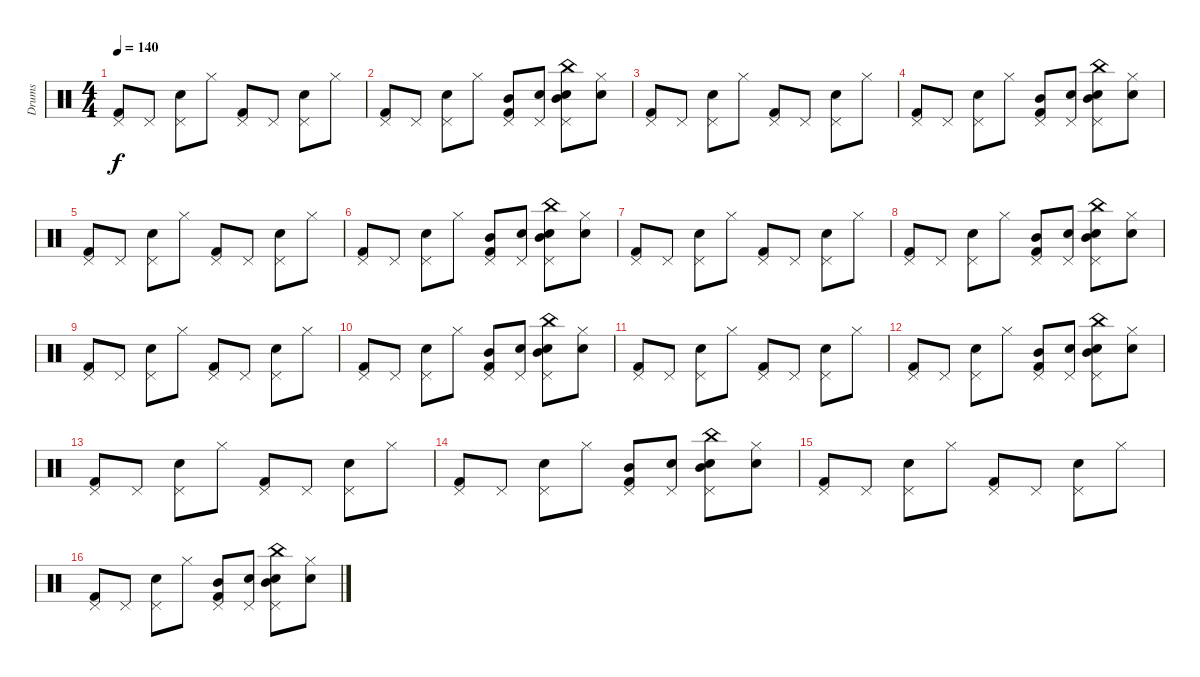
\track ("Drums" "Drums") {instrument percussion}
\staff {score}
\articulation defaults
\ts (4 4)
\tempo 140
\clef neutral
\ks c
("Kick (hit) 2" "Pedal Hi-Hat (hit)").8{dy f} "Pedal Hi-Hat (hit)".8 ("Snare (hit) 2" "Pedal Hi-Hat (hit)").8 "Hi-Hat (closed)".8 ("Kick (hit) 2" "Pedal Hi-Hat (hit)").8 "Pedal Hi-Hat (hit)".8 ("Snare (hit) 2" "Pedal Hi-Hat (hit)").8 "Hi-Hat (closed)".8 |
("Kick (hit) 2" "Pedal Hi-Hat (hit)").8 "Pedal Hi-Hat (hit)".8 ("Snare (hit) 2" "Pedal Hi-Hat (hit)").8 "Hi-Hat (closed)".8 ("Kick (hit) 2" "Mid Tom (hit)" "Pedal Hi-Hat (hit)").8 ("Hand Clap (hit)" "Pedal Hi-Hat (hit)").8 ("Snare (hit) 2" "China (hit)" "Mid Tom (hit)" "Pedal Hi-Hat (hit)").8 ("Hand Clap (hit)" "Hi-Hat (closed)").8 |
("Kick (hit) 2" "Pedal Hi-Hat (hit)").8 "Pedal Hi-Hat (hit)".8 ("Snare (hit) 2" "Pedal Hi-Hat (hit)").8 "Hi-Hat (closed)".8 ("Kick (hit) 2" "Pedal Hi-Hat (hit)").8 "Pedal Hi-Hat (hit)".8 ("Snare (hit) 2" "Pedal Hi-Hat (hit)").8 "Hi-Hat (closed)".8 |
("Kick (hit) 2" "Pedal Hi-Hat (hit)").8 "Pedal Hi-Hat (hit)".8 ("Snare (hit) 2" "Pedal Hi-Hat (hit)").8 "Hi-Hat (closed)".8 ("Kick (hit) 2" "Mid Tom (hit)" "Pedal Hi-Hat (hit)").8 ("Hand Clap (hit)" "Pedal Hi-Hat (hit)").8 ("Snare (hit) 2" "China (hit)" "Mid Tom (hit)" "Pedal Hi-Hat (hit)").8 ("Hand Clap (hit)" "Hi-Hat (closed)").8 |
("Kick (hit) 2" "Pedal Hi-Hat (hit)").8 "Pedal Hi-Hat (hit)".8 ("Snare (hit) 2" "Pedal Hi-Hat (hit)").8 "Hi-Hat (closed)".8 ("Kick (hit) 2" "Pedal Hi-Hat (hit)").8 "Pedal Hi-Hat (hit)".8 ("Snare (hit) 2" "Pedal Hi-Hat (hit)").8 "Hi-Hat (closed)".8 |
("Kick (hit) 2" "Pedal Hi-Hat (hit)").8 "Pedal Hi-Hat (hit)".8 ("Snare (hit) 2" "Pedal Hi-Hat (hit)").8 "Hi-Hat (closed)".8 ("Kick (hit) 2" "Mid Tom (hit)" "Pedal Hi-Hat (hit)").8 ("Hand Clap (hit)" "Pedal Hi-Hat (hit)").8 ("Snare (hit) 2" "China (hit)" "Mid Tom (hit)" "Pedal Hi-Hat (hit)").8 ("Hand Clap (hit)" "Hi-Hat (closed)").8 |
("Kick (hit) 2" "Pedal Hi-Hat (hit)").8 "Pedal Hi-Hat (hit)".8 ("Snare (hit) 2" "Pedal Hi-Hat (hit)").8 "Hi-Hat (closed)".8 ("Kick (hit) 2" "Pedal Hi-Hat (hit)").8 "Pedal Hi-Hat (hit)".8 ("Snare (hit) 2" "Pedal Hi-Hat (hit)").8 "Hi-Hat (closed)".8 |
("Kick (hit) 2" "Pedal Hi-Hat (hit)").8 "Pedal Hi-Hat (hit)".8 ("Snare (hit) 2" "Pedal Hi-Hat (hit)").8 "Hi-Hat (closed)".8 ("Kick (hit) 2" "Mid Tom (hit)" "Pedal Hi-Hat (hit)").8 ("Hand Clap (hit)" "Pedal Hi-Hat (hit)").8 ("Snare (hit) 2" "China (hit)" "Mid Tom (hit)" "Pedal Hi-Hat (hit)").8 ("Hand Clap (hit)" "Hi-Hat (closed)").8 |
("Kick (hit) 2" "Pedal Hi-Hat (hit)").8 "Pedal Hi-Hat (hit)".8 ("Snare (hit) 2" "Pedal Hi-Hat (hit)").8 "Hi-Hat (closed)".8 ("Kick (hit) 2" "Pedal Hi-Hat (hit)").8 "Pedal Hi-Hat (hit)".8 ("Snare (hit) 2" "Pedal Hi-Hat (hit)").8 "Hi-Hat (closed)".8 |
("Kick (hit) 2" "Pedal Hi-Hat (hit)").8 "Pedal Hi-Hat (hit)".8 ("Snare (hit) 2" "Pedal Hi-Hat (hit)").8 "Hi-Hat (closed)".8 ("Kick (hit) 2" "Mid Tom (hit)" "Pedal Hi-Hat (hit)").8 ("Hand Clap (hit)" "Pedal Hi-Hat (hit)").8 ("Snare (hit) 2" "China (hit)" "Mid Tom (hit)" "Pedal Hi-Hat (hit)").8 ("Hand Clap (hit)" "Hi-Hat (closed)").8 |
("Kick (hit) 2" "Pedal Hi-Hat (hit)").8 "Pedal Hi-Hat (hit)".8 ("Snare (hit) 2" "Pedal Hi-Hat (hit)").8 "Hi-Hat (closed)".8 ("Kick (hit) 2" "Pedal Hi-Hat (hit)").8 "Pedal Hi-Hat (hit)".8 ("Snare (hit) 2" "Pedal Hi-Hat (hit)").8 "Hi-Hat (closed)".8 |
("Kick (hit) 2" "Pedal Hi-Hat (hit)").8 "Pedal Hi-Hat (hit)".8 ("Snare (hit) 2" "Pedal Hi-Hat (hit)").8 "Hi-Hat (closed)".8 ("Kick (hit) 2" "Mid Tom (hit)" "Pedal Hi-Hat (hit)").8 ("Hand Clap (hit)" "Pedal Hi-Hat (hit)").8 ("Snare (hit) 2" "China (hit)" "Mid Tom (hit)" "Pedal Hi-Hat (hit)").8 ("Hand Clap (hit)" "Hi-Hat (closed)").8 |
("Kick (hit) 2" "Pedal Hi-Hat (hit)").8 "Pedal Hi-Hat (hit)".8 ("Snare (hit) 2" "Pedal Hi-Hat (hit)").8 "Hi-Hat (closed)".8 ("Kick (hit) 2" "Pedal Hi-Hat (hit)").8 "Pedal Hi-Hat (hit)".8 ("Snare (hit) 2" "Pedal Hi-Hat (hit)").8 "Hi-Hat (closed)".8 |
("Kick (hit) 2" "Pedal Hi-Hat (hit)").8 "Pedal Hi-Hat (hit)".8 ("Snare (hit) 2" "Pedal Hi-Hat (hit)").8 "Hi-Hat (closed)".8 ("Kick (hit) 2" "Mid Tom (hit)" "Pedal Hi-Hat (hit)").8 ("Hand Clap (hit)" "Pedal Hi-Hat (hit)").8 ("Snare (hit) 2" "China (hit)" "Mid Tom (hit)" "Pedal Hi-Hat (hit)").8 ("Hand Clap (hit)" "Hi-Hat (closed)").8 |
("Kick (hit) 2" "Pedal Hi-Hat (hit)").8 "Pedal Hi-Hat (hit)".8 ("Snare (hit) 2" "Pedal Hi-Hat (hit)").8 "Hi-Hat (closed)".8 ("Kick (hit) 2" "Pedal Hi-Hat (hit)").8 "Pedal Hi-Hat (hit)".8 ("Snare (hit) 2" "Pedal Hi-Hat (hit)").8 "Hi-Hat (closed)".8 |
("Kick (hit) 2" "Pedal Hi-Hat (hit)").8 "Pedal Hi-Hat (hit)".8 ("Snare (hit) 2" "Pedal Hi-Hat (hit)").8 "Hi-Hat (closed)".8 ("Kick (hit) 2" "Mid Tom (hit)" "Pedal Hi-Hat (hit)").8 ("Hand Clap (hit)" "Pedal Hi-Hat (hit)").8 ("Snare (hit) 2" "China (hit)" "Mid Tom (hit)" "Pedal Hi-Hat (hit)").8 ("Hand Clap (hit)" "Hi-Hat (closed)").8
